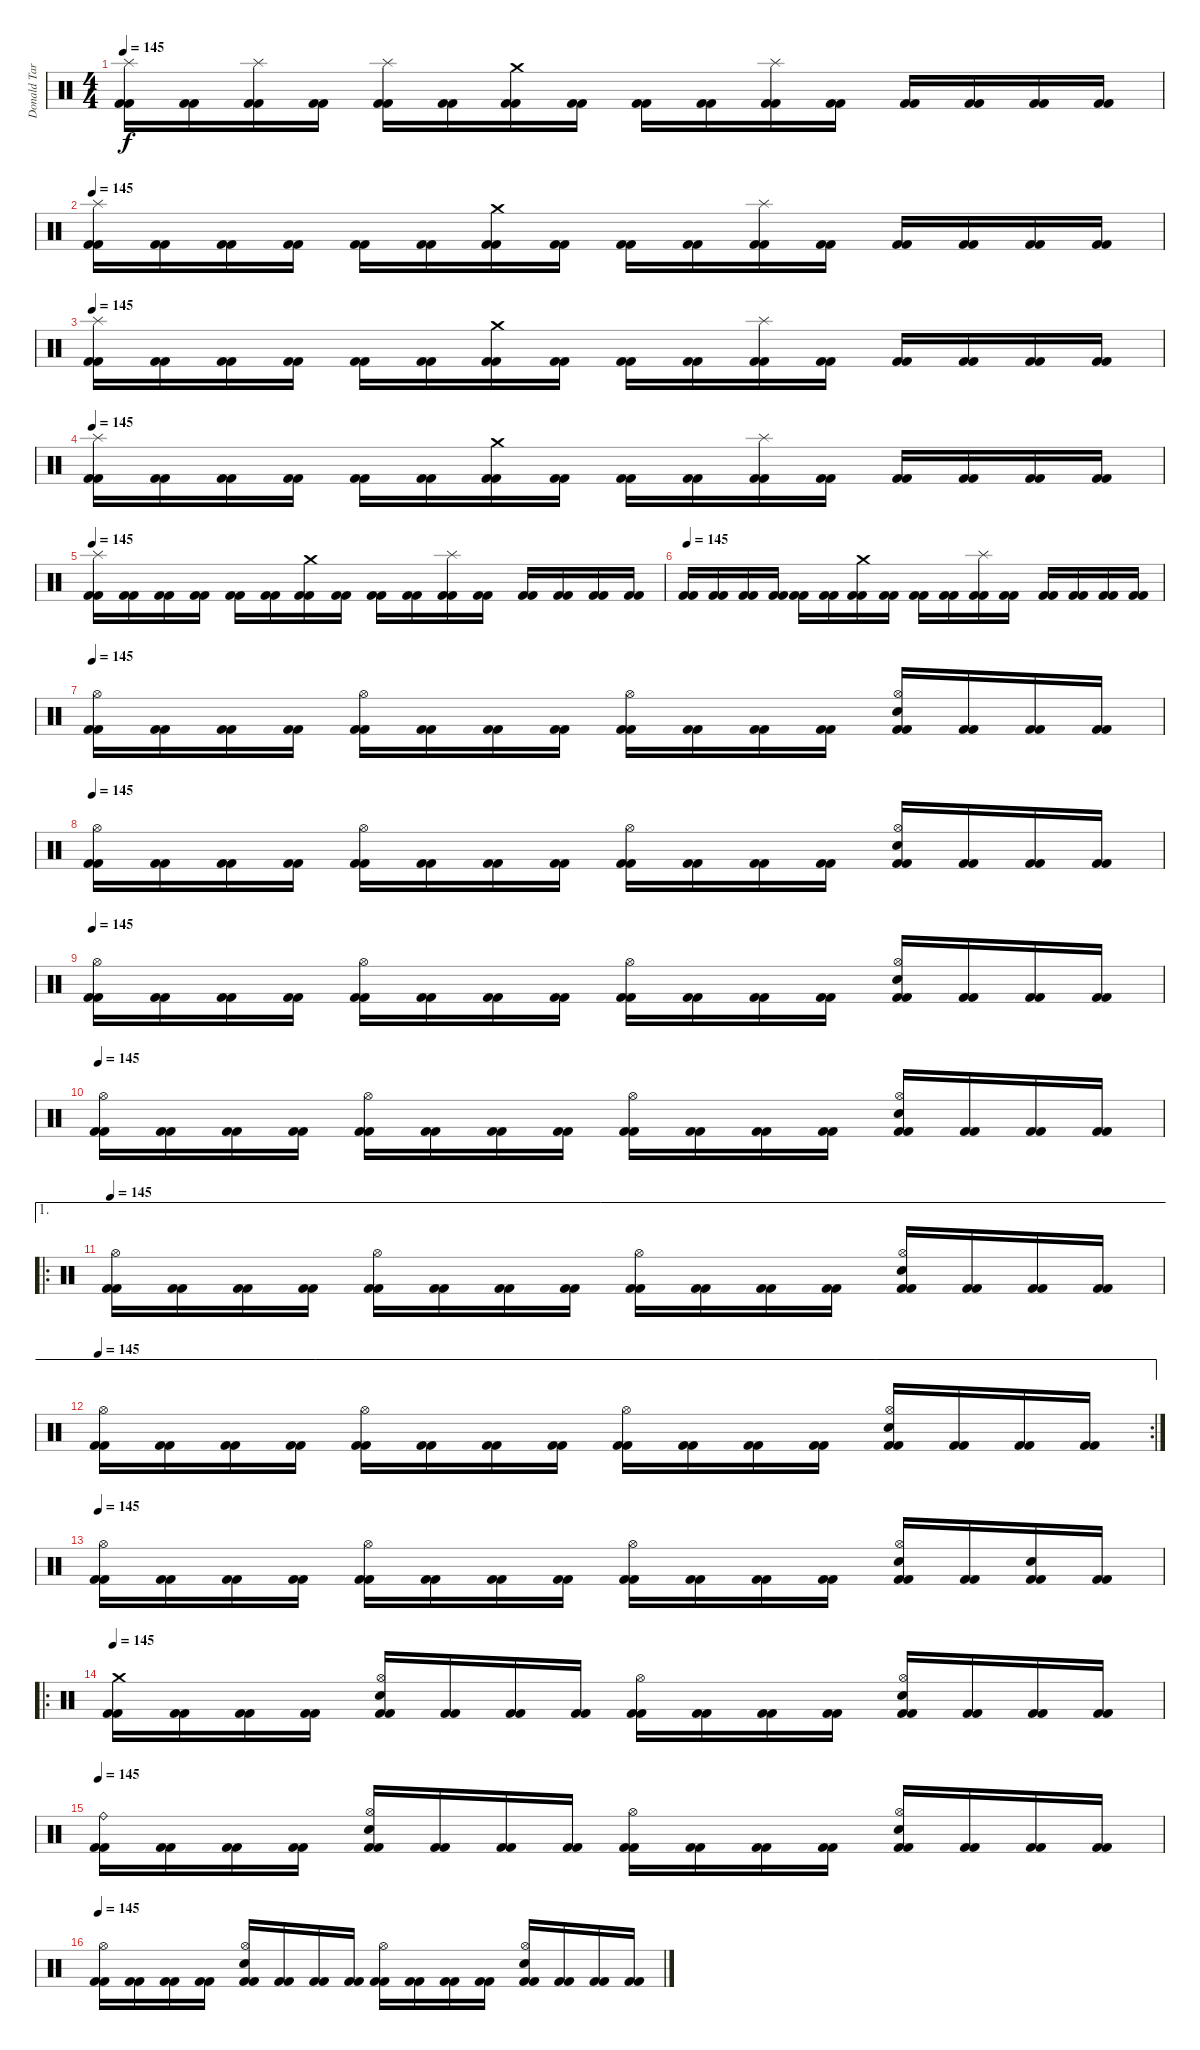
\track ("Donald Tardy" "Donald Tar") {instrument percussion}
\staff {score}
\articulation defaults
\ts (4 4)
\tempo 145
\clef neutral
\ks c
("Splash (hit)" "Kick (hit) 2" "Kick (hit) 2").16{dy f} ("Kick (hit) 2" "Kick (hit) 2").16 ("Splash (hit)" "Kick (hit) 2" "Kick (hit) 2").16 ("Kick (hit) 2" "Kick (hit) 2").16 ("Splash (hit)" "Kick (hit) 2" "Kick (hit) 2").16 ("Kick (hit) 2" "Kick (hit) 2").16 ("Crash medium (hit)" "Kick (hit) 2" "Kick (hit) 2").16 ("Kick (hit) 2" "Kick (hit) 2").16 ("Kick (hit) 2" "Kick (hit) 2").16 ("Kick (hit) 2" "Kick (hit) 2").16 ("Splash (hit)" "Kick (hit) 2" "Kick (hit) 2").16 ("Kick (hit) 2" "Kick (hit) 2").16 ("Kick (hit) 2" "Kick (hit) 2").16 ("Kick (hit) 2" "Kick (hit) 2").16 ("Kick (hit) 2" "Kick (hit) 2").16 ("Kick (hit) 2" "Kick (hit) 2").16 |
\tempo 145
("Splash (hit)" "Kick (hit) 2" "Kick (hit) 2").16 ("Kick (hit) 2" "Kick (hit) 2").16 ("Kick (hit) 2" "Kick (hit) 2").16 ("Kick (hit) 2" "Kick (hit) 2").16 ("Kick (hit) 2" "Kick (hit) 2").16 ("Kick (hit) 2" "Kick (hit) 2").16 ("Crash medium (hit)" "Kick (hit) 2" "Kick (hit) 2").16 ("Kick (hit) 2" "Kick (hit) 2").16 ("Kick (hit) 2" "Kick (hit) 2").16 ("Kick (hit) 2" "Kick (hit) 2").16 ("Splash (hit)" "Kick (hit) 2" "Kick (hit) 2").16 ("Kick (hit) 2" "Kick (hit) 2").16 ("Kick (hit) 2" "Kick (hit) 2").16 ("Kick (hit) 2" "Kick (hit) 2").16 ("Kick (hit) 2" "Kick (hit) 2").16 ("Kick (hit) 2" "Kick (hit) 2").16 |
\tempo 145
("Splash (hit)" "Kick (hit) 2" "Kick (hit) 2").16 ("Kick (hit) 2" "Kick (hit) 2").16 ("Kick (hit) 2" "Kick (hit) 2").16 ("Kick (hit) 2" "Kick (hit) 2").16 ("Kick (hit) 2" "Kick (hit) 2").16 ("Kick (hit) 2" "Kick (hit) 2").16 ("Crash medium (hit)" "Kick (hit) 2" "Kick (hit) 2").16 ("Kick (hit) 2" "Kick (hit) 2").16 ("Kick (hit) 2" "Kick (hit) 2").16 ("Kick (hit) 2" "Kick (hit) 2").16 ("Splash (hit)" "Kick (hit) 2" "Kick (hit) 2").16 ("Kick (hit) 2" "Kick (hit) 2").16 ("Kick (hit) 2" "Kick (hit) 2").16 ("Kick (hit) 2" "Kick (hit) 2").16 ("Kick (hit) 2" "Kick (hit) 2").16 ("Kick (hit) 2" "Kick (hit) 2").16 |
\tempo 145
("Splash (hit)" "Kick (hit) 2" "Kick (hit) 2").16 ("Kick (hit) 2" "Kick (hit) 2").16 ("Kick (hit) 2" "Kick (hit) 2").16 ("Kick (hit) 2" "Kick (hit) 2").16 ("Kick (hit) 2" "Kick (hit) 2").16 ("Kick (hit) 2" "Kick (hit) 2").16 ("Crash medium (hit)" "Kick (hit) 2" "Kick (hit) 2").16 ("Kick (hit) 2" "Kick (hit) 2").16 ("Kick (hit) 2" "Kick (hit) 2").16 ("Kick (hit) 2" "Kick (hit) 2").16 ("Splash (hit)" "Kick (hit) 2" "Kick (hit) 2").16 ("Kick (hit) 2" "Kick (hit) 2").16 ("Kick (hit) 2" "Kick (hit) 2").16 ("Kick (hit) 2" "Kick (hit) 2").16 ("Kick (hit) 2" "Kick (hit) 2").16 ("Kick (hit) 2" "Kick (hit) 2").16 |
\tempo 145
("Splash (hit)" "Kick (hit) 2" "Kick (hit) 2").16 ("Kick (hit) 2" "Kick (hit) 2").16 ("Kick (hit) 2" "Kick (hit) 2").16 ("Kick (hit) 2" "Kick (hit) 2").16 ("Kick (hit) 2" "Kick (hit) 2").16 ("Kick (hit) 2" "Kick (hit) 2").16 ("Crash medium (hit)" "Kick (hit) 2" "Kick (hit) 2").16 ("Kick (hit) 2" "Kick (hit) 2").16 ("Kick (hit) 2" "Kick (hit) 2").16 ("Kick (hit) 2" "Kick (hit) 2").16 ("Splash (hit)" "Kick (hit) 2" "Kick (hit) 2").16 ("Kick (hit) 2" "Kick (hit) 2").16 ("Kick (hit) 2" "Kick (hit) 2").16 ("Kick (hit) 2" "Kick (hit) 2").16 ("Kick (hit) 2" "Kick (hit) 2").16 ("Kick (hit) 2" "Kick (hit) 2").16 |
\tempo 145
("Kick (hit) 2" "Kick (hit) 2").16 ("Kick (hit) 2" "Kick (hit) 2").16 ("Kick (hit) 2" "Kick (hit) 2").16 ("Kick (hit) 2" "Kick (hit) 2").16 ("Kick (hit) 2" "Kick (hit) 2").16 ("Kick (hit) 2" "Kick (hit) 2").16 ("Crash medium (hit)" "Kick (hit) 2" "Kick (hit) 2").16 ("Kick (hit) 2" "Kick (hit) 2").16 ("Kick (hit) 2" "Kick (hit) 2").16 ("Kick (hit) 2" "Kick (hit) 2").16 ("Splash (hit)" "Kick (hit) 2" "Kick (hit) 2").16 ("Kick (hit) 2" "Kick (hit) 2").16 ("Kick (hit) 2" "Kick (hit) 2").16 ("Kick (hit) 2" "Kick (hit) 2").16 ("Kick (hit) 2" "Kick (hit) 2").16 ("Kick (hit) 2" "Kick (hit) 2").16 |
\tempo 145
("Hi-Hat (open)" "Kick (hit) 2" "Kick (hit) 2").16 ("Kick (hit) 2" "Kick (hit) 2").16 ("Kick (hit) 2" "Kick (hit) 2").16 ("Kick (hit) 2" "Kick (hit) 2").16 ("Hi-Hat (open)" "Kick (hit) 2" "Kick (hit) 2").16 ("Kick (hit) 2" "Kick (hit) 2").16 ("Kick (hit) 2" "Kick (hit) 2").16 ("Kick (hit) 2" "Kick (hit) 2").16 ("Hi-Hat (open)" "Kick (hit) 2" "Kick (hit) 2").16 ("Kick (hit) 2" "Kick (hit) 2").16 ("Kick (hit) 2" "Kick (hit) 2").16 ("Kick (hit) 2" "Kick (hit) 2").16 ("Hi-Hat (open)" "Electric Snare (hit)" "Kick (hit) 2" "Kick (hit) 2").16 ("Kick (hit) 2" "Kick (hit) 2").16 ("Kick (hit) 2" "Kick (hit) 2").16 ("Kick (hit) 2" "Kick (hit) 2").16 |
\tempo 145
("Hi-Hat (open)" "Kick (hit) 2" "Kick (hit) 2").16 ("Kick (hit) 2" "Kick (hit) 2").16 ("Kick (hit) 2" "Kick (hit) 2").16 ("Kick (hit) 2" "Kick (hit) 2").16 ("Hi-Hat (open)" "Kick (hit) 2" "Kick (hit) 2").16 ("Kick (hit) 2" "Kick (hit) 2").16 ("Kick (hit) 2" "Kick (hit) 2").16 ("Kick (hit) 2" "Kick (hit) 2").16 ("Hi-Hat (open)" "Kick (hit) 2" "Kick (hit) 2").16 ("Kick (hit) 2" "Kick (hit) 2").16 ("Kick (hit) 2" "Kick (hit) 2").16 ("Kick (hit) 2" "Kick (hit) 2").16 ("Hi-Hat (open)" "Electric Snare (hit)" "Kick (hit) 2" "Kick (hit) 2").16 ("Kick (hit) 2" "Kick (hit) 2").16 ("Kick (hit) 2" "Kick (hit) 2").16 ("Kick (hit) 2" "Kick (hit) 2").16 |
\tempo 145
("Hi-Hat (open)" "Kick (hit) 2" "Kick (hit) 2").16 ("Kick (hit) 2" "Kick (hit) 2").16 ("Kick (hit) 2" "Kick (hit) 2").16 ("Kick (hit) 2" "Kick (hit) 2").16 ("Hi-Hat (open)" "Kick (hit) 2" "Kick (hit) 2").16 ("Kick (hit) 2" "Kick (hit) 2").16 ("Kick (hit) 2" "Kick (hit) 2").16 ("Kick (hit) 2" "Kick (hit) 2").16 ("Hi-Hat (open)" "Kick (hit) 2" "Kick (hit) 2").16 ("Kick (hit) 2" "Kick (hit) 2").16 ("Kick (hit) 2" "Kick (hit) 2").16 ("Kick (hit) 2" "Kick (hit) 2").16 ("Hi-Hat (open)" "Electric Snare (hit)" "Kick (hit) 2" "Kick (hit) 2").16 ("Kick (hit) 2" "Kick (hit) 2").16 ("Kick (hit) 2" "Kick (hit) 2").16 ("Kick (hit) 2" "Kick (hit) 2").16 |
\tempo 145
("Hi-Hat (open)" "Kick (hit) 2" "Kick (hit) 2").16 ("Kick (hit) 2" "Kick (hit) 2").16 ("Kick (hit) 2" "Kick (hit) 2").16 ("Kick (hit) 2" "Kick (hit) 2").16 ("Hi-Hat (open)" "Kick (hit) 2" "Kick (hit) 2").16 ("Kick (hit) 2" "Kick (hit) 2").16 ("Kick (hit) 2" "Kick (hit) 2").16 ("Kick (hit) 2" "Kick (hit) 2").16 ("Hi-Hat (open)" "Kick (hit) 2" "Kick (hit) 2").16 ("Kick (hit) 2" "Kick (hit) 2").16 ("Kick (hit) 2" "Kick (hit) 2").16 ("Kick (hit) 2" "Kick (hit) 2").16 ("Hi-Hat (open)" "Electric Snare (hit)" "Kick (hit) 2" "Kick (hit) 2").16 ("Kick (hit) 2" "Kick (hit) 2").16 ("Kick (hit) 2" "Kick (hit) 2").16 ("Kick (hit) 2" "Kick (hit) 2").16 |
\ae 1
\ro
\tempo 145
("Hi-Hat (open)" "Kick (hit) 2" "Kick (hit) 2").16 ("Kick (hit) 2" "Kick (hit) 2").16 ("Kick (hit) 2" "Kick (hit) 2").16 ("Kick (hit) 2" "Kick (hit) 2").16 ("Hi-Hat (open)" "Kick (hit) 2" "Kick (hit) 2").16 ("Kick (hit) 2" "Kick (hit) 2").16 ("Kick (hit) 2" "Kick (hit) 2").16 ("Kick (hit) 2" "Kick (hit) 2").16 ("Hi-Hat (open)" "Kick (hit) 2" "Kick (hit) 2").16 ("Kick (hit) 2" "Kick (hit) 2").16 ("Kick (hit) 2" "Kick (hit) 2").16 ("Kick (hit) 2" "Kick (hit) 2").16 ("Hi-Hat (open)" "Electric Snare (hit)" "Kick (hit) 2" "Kick (hit) 2").16 ("Kick (hit) 2" "Kick (hit) 2").16 ("Kick (hit) 2" "Kick (hit) 2").16 ("Kick (hit) 2" "Kick (hit) 2").16 |
\ae 1
\rc 2
\tempo 145
("Hi-Hat (open)" "Kick (hit) 2" "Kick (hit) 2").16 ("Kick (hit) 2" "Kick (hit) 2").16 ("Kick (hit) 2" "Kick (hit) 2").16 ("Kick (hit) 2" "Kick (hit) 2").16 ("Hi-Hat (open)" "Kick (hit) 2" "Kick (hit) 2").16 ("Kick (hit) 2" "Kick (hit) 2").16 ("Kick (hit) 2" "Kick (hit) 2").16 ("Kick (hit) 2" "Kick (hit) 2").16 ("Hi-Hat (open)" "Kick (hit) 2" "Kick (hit) 2").16 ("Kick (hit) 2" "Kick (hit) 2").16 ("Kick (hit) 2" "Kick (hit) 2").16 ("Kick (hit) 2" "Kick (hit) 2").16 ("Hi-Hat (open)" "Electric Snare (hit)" "Kick (hit) 2" "Kick (hit) 2").16 ("Kick (hit) 2" "Kick (hit) 2").16 ("Kick (hit) 2" "Kick (hit) 2").16 ("Kick (hit) 2" "Kick (hit) 2").16 |
\tempo 145
("Hi-Hat (open)" "Kick (hit) 2" "Kick (hit) 2").16 ("Kick (hit) 2" "Kick (hit) 2").16 ("Kick (hit) 2" "Kick (hit) 2").16 ("Kick (hit) 2" "Kick (hit) 2").16 ("Hi-Hat (open)" "Kick (hit) 2" "Kick (hit) 2").16 ("Kick (hit) 2" "Kick (hit) 2").16 ("Kick (hit) 2" "Kick (hit) 2").16 ("Kick (hit) 2" "Kick (hit) 2").16 ("Hi-Hat (open)" "Kick (hit) 2" "Kick (hit) 2").16 ("Kick (hit) 2" "Kick (hit) 2").16 ("Kick (hit) 2" "Kick (hit) 2").16 ("Kick (hit) 2" "Kick (hit) 2").16 ("Hi-Hat (open)" "Electric Snare (hit)" "Kick (hit) 2" "Kick (hit) 2").16 ("Kick (hit) 2" "Kick (hit) 2").16 ("Electric Snare (hit)" "Kick (hit) 2" "Kick (hit) 2").16 ("Kick (hit) 2" "Kick (hit) 2").16 |
\ro
\tempo 145
("Crash medium (hit)" "Kick (hit) 2" "Kick (hit) 2").16 ("Kick (hit) 2" "Kick (hit) 2").16 ("Kick (hit) 2" "Kick (hit) 2").16 ("Kick (hit) 2" "Kick (hit) 2").16 ("Hi-Hat (open)" "Electric Snare (hit)" "Kick (hit) 2" "Kick (hit) 2").16 ("Kick (hit) 2" "Kick (hit) 2").16 ("Kick (hit) 2" "Kick (hit) 2").16 ("Kick (hit) 2" "Kick (hit) 2").16 ("Hi-Hat (open)" "Kick (hit) 2" "Kick (hit) 2").16 ("Kick (hit) 2" "Kick (hit) 2").16 ("Kick (hit) 2" "Kick (hit) 2").16 ("Kick (hit) 2" "Kick (hit) 2").16 ("Hi-Hat (open)" "Electric Snare (hit)" "Kick (hit) 2" "Kick (hit) 2").16 ("Kick (hit) 2" "Kick (hit) 2").16 ("Kick (hit) 2" "Kick (hit) 2").16 ("Kick (hit) 2" "Kick (hit) 2").16 |
\tempo 145
("Ride (bell)" "Kick (hit) 2" "Kick (hit) 2").16 ("Kick (hit) 2" "Kick (hit) 2").16 ("Kick (hit) 2" "Kick (hit) 2").16 ("Kick (hit) 2" "Kick (hit) 2").16 ("Hi-Hat (open)" "Electric Snare (hit)" "Kick (hit) 2" "Kick (hit) 2").16 ("Kick (hit) 2" "Kick (hit) 2").16 ("Kick (hit) 2" "Kick (hit) 2").16 ("Kick (hit) 2" "Kick (hit) 2").16 ("Hi-Hat (open)" "Kick (hit) 2" "Kick (hit) 2").16 ("Kick (hit) 2" "Kick (hit) 2").16 ("Kick (hit) 2" "Kick (hit) 2").16 ("Kick (hit) 2" "Kick (hit) 2").16 ("Hi-Hat (open)" "Electric Snare (hit)" "Kick (hit) 2" "Kick (hit) 2").16 ("Kick (hit) 2" "Kick (hit) 2").16 ("Kick (hit) 2" "Kick (hit) 2").16 ("Kick (hit) 2" "Kick (hit) 2").16 |
\tempo 145
("Hi-Hat (open)" "Kick (hit) 2" "Kick (hit) 2").16 ("Kick (hit) 2" "Kick (hit) 2").16 ("Kick (hit) 2" "Kick (hit) 2").16 ("Kick (hit) 2" "Kick (hit) 2").16 ("Hi-Hat (open)" "Electric Snare (hit)" "Kick (hit) 2" "Kick (hit) 2").16 ("Kick (hit) 2" "Kick (hit) 2").16 ("Kick (hit) 2" "Kick (hit) 2").16 ("Kick (hit) 2" "Kick (hit) 2").16 ("Hi-Hat (open)" "Kick (hit) 2" "Kick (hit) 2").16 ("Kick (hit) 2" "Kick (hit) 2").16 ("Kick (hit) 2" "Kick (hit) 2").16 ("Kick (hit) 2" "Kick (hit) 2").16 ("Hi-Hat (open)" "Electric Snare (hit)" "Kick (hit) 2" "Kick (hit) 2").16 ("Kick (hit) 2" "Kick (hit) 2").16 ("Kick (hit) 2" "Kick (hit) 2").16 ("Kick (hit) 2" "Kick (hit) 2").16
